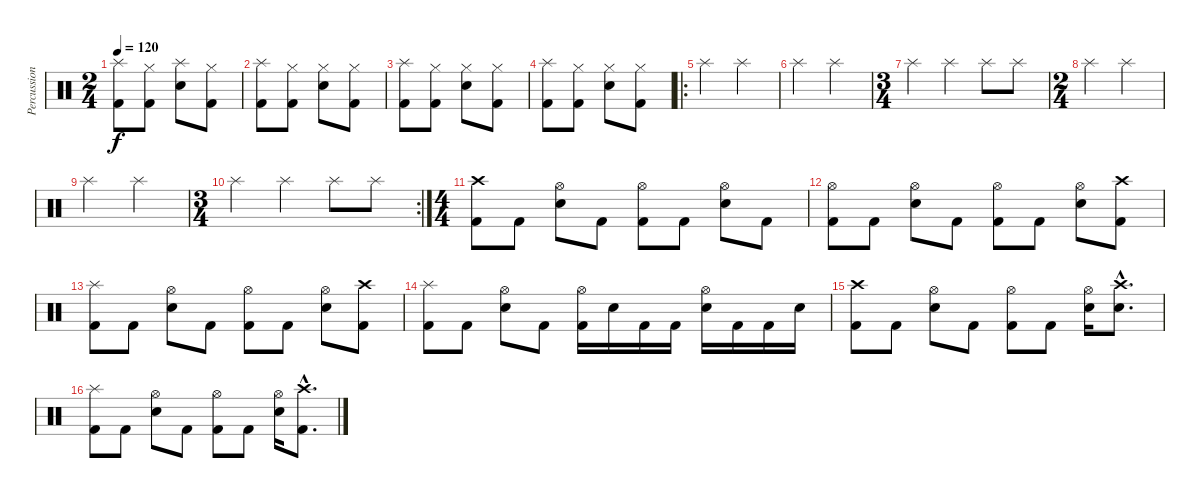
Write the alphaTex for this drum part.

\track ("Percussion" "Percussion") {instrument percussion}
\staff {score}
\articulation defaults
\ts (2 4)
\tempo 120
\clef neutral
\ks c
("Splash (hit)" "Kick (hit) 2").8{dy f} ("Hi-Hat (closed)" "Kick (hit) 2").8 ("Splash (hit)" "Electric Snare (hit)").8 ("Hi-Hat (closed)" "Kick (hit) 2").8 |
("Splash (hit)" "Kick (hit) 2").8 ("Hi-Hat (closed)" "Kick (hit) 2").8 ("Hi-Hat (closed)" "Electric Snare (hit)").8 ("Hi-Hat (closed)" "Kick (hit) 2").8 |
("Splash (hit)" "Kick (hit) 2").8 ("Hi-Hat (closed)" "Kick (hit) 2").8 ("Hi-Hat (closed)" "Electric Snare (hit)").8 ("Hi-Hat (closed)" "Kick (hit) 2").8 |
("Splash (hit)" "Kick (hit) 2").8 ("Hi-Hat (closed)" "Kick (hit) 2").8 ("Hi-Hat (closed)" "Electric Snare (hit)").8 ("Hi-Hat (closed)" "Kick (hit) 2").8 |
\ro "Splash (hit)".4 "Splash (hit)".4
|
"Splash (hit)".4 "Splash (hit)".4 |
\ts (3 4)
"Splash (hit)".4 "Splash (hit)".4 "Splash (hit)".8 "Splash (hit)".8 |
\ts (2 4)
"Splash (hit)".4 "Splash (hit)".4 |
"Splash (hit)".4 "Splash (hit)".4 |
\rc 2
\ts (3 4)
"Splash (hit)".4 "Splash (hit)".4 "Splash (hit)".8 "Splash (hit)".8 |
\ts (4 4)
("Crash high (hit)" "Kick (hit) 2").8 "Kick (hit) 2".8 ("Hi-Hat (open)" "Electric Snare (hit)").8 "Kick (hit) 2".8 ("Hi-Hat (open)" "Kick (hit) 2").8 "Kick (hit) 2".8 ("Hi-Hat (open)" "Electric Snare (hit)").8 "Kick (hit) 2".8 |
("Hi-Hat (open)" "Kick (hit) 2").8 "Kick (hit) 2".8 ("Hi-Hat (open)" "Electric Snare (hit)").8 "Kick (hit) 2".8 ("Hi-Hat (open)" "Kick (hit) 2").8 "Kick (hit) 2".8 ("Hi-Hat (open)" "Electric Snare (hit)").8 ("Crash high (hit)" "Kick (hit) 2").8 |
("Splash (hit)" "Kick (hit) 2").8 "Kick (hit) 2".8 ("Hi-Hat (open)" "Electric Snare (hit)").8 "Kick (hit) 2".8 ("Hi-Hat (open)" "Kick (hit) 2").8 "Kick (hit) 2".8 ("Hi-Hat (open)" "Electric Snare (hit)").8 ("Crash high (hit)" "Kick (hit) 2").8 |
("Splash (hit)" "Kick (hit) 2").8 "Kick (hit) 2".8 ("Hi-Hat (open)" "Electric Snare (hit)").8 "Kick (hit) 2".8 ("Hi-Hat (open)" "Kick (hit) 2").16 "Electric Snare (hit)".16 "Kick (hit) 2".16 "Kick (hit) 2".16 ("Hi-Hat (open)" "Electric Snare (hit)").16 "Kick (hit) 2".16 "Kick (hit) 2".16 "Electric Snare (hit)".16 |
("Crash high (hit)" "Kick (hit) 2").8 "Kick (hit) 2".8 ("Hi-Hat (open)" "Electric Snare (hit)").8 "Kick (hit) 2".8 ("Hi-Hat (open)" "Kick (hit) 2").8 "Kick (hit) 2".8 ("Hi-Hat (open)" "Electric Snare (hit)").16 ("Crash high (hit)"{hac} "Electric Snare (hit)"{hac}).8{d} |
("Splash (hit)" "Kick (hit) 2").8 "Kick (hit) 2".8 ("Hi-Hat (open)" "Electric Snare (hit)").8 "Kick (hit) 2".8 ("Hi-Hat (open)" "Kick (hit) 2").8 "Kick (hit) 2".8 ("Hi-Hat (open)" "Electric Snare (hit)").16 ("Crash high (hit)"{hac} "Kick (hit) 2"{hac}).8{d}
